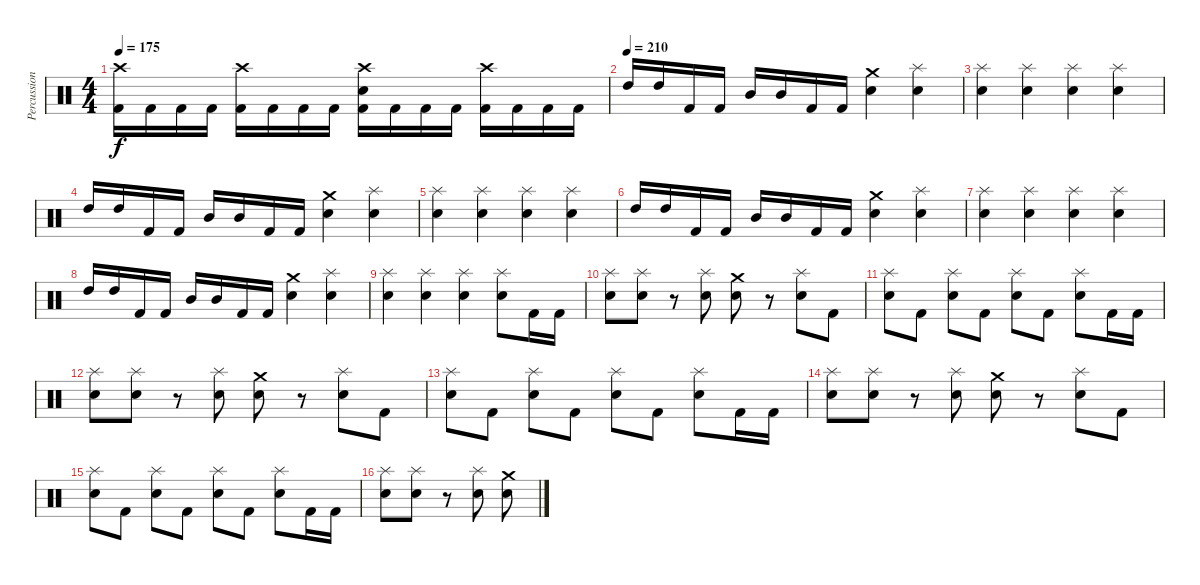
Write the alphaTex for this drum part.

\track ("Percussion" "Percussion") {instrument percussion}
\staff {score}
\articulation defaults
\ts (4 4)
\tempo 175
\clef neutral
\ks c
("Crash high (hit)" "Kick (hit) 2").16{dy f} "Kick (hit) 2".16 "Kick (hit) 2".16 "Kick (hit) 2".16 ("Crash high (hit)" "Kick (hit) 2").16 "Kick (hit) 2".16 "Kick (hit) 2".16 "Kick (hit) 2".16 ("Crash high (hit)" "Electric Snare (hit)" "Kick (hit) 2").16 "Kick (hit) 2".16 "Kick (hit) 2".16 "Kick (hit) 2".16 ("Crash high (hit)" "Kick (hit) 2").16 "Kick (hit) 2".16 "Kick (hit) 2".16 "Kick (hit) 2".16 |
\tempo (210)
"High Tom (hit)".16 "High Tom (hit)".16 "Kick (hit) 2".16 "Kick (hit) 2".16 "Mid Tom (hit)".16 "Mid Tom (hit)".16 "Kick (hit) 2".16 "Kick (hit) 2".16 ("Crash medium (hit)" "Electric Snare (hit)").4 ("Splash (hit)" "Electric Snare (hit)").4 |
("Splash (hit)" "Electric Snare (hit)").4 ("Splash (hit)" "Electric Snare (hit)").4 ("Splash (hit)" "Electric Snare (hit)").4 ("Splash (hit)" "Electric Snare (hit)").4 |
"High Tom (hit)".16 "High Tom (hit)".16 "Kick (hit) 2".16 "Kick (hit) 2".16 "Mid Tom (hit)".16 "Mid Tom (hit)".16 "Kick (hit) 2".16 "Kick (hit) 2".16 ("Crash medium (hit)" "Electric Snare (hit)").4 ("Splash (hit)" "Electric Snare (hit)").4 |
("Splash (hit)" "Electric Snare (hit)").4 ("Splash (hit)" "Electric Snare (hit)").4 ("Splash (hit)" "Electric Snare (hit)").4 ("Splash (hit)" "Electric Snare (hit)").4 |
"High Tom (hit)".16 "High Tom (hit)".16 "Kick (hit) 2".16 "Kick (hit) 2".16 "Mid Tom (hit)".16 "Mid Tom (hit)".16 "Kick (hit) 2".16 "Kick (hit) 2".16 ("Crash medium (hit)" "Electric Snare (hit)").4 ("Splash (hit)" "Electric Snare (hit)").4 |
("Splash (hit)" "Electric Snare (hit)").4 ("Splash (hit)" "Electric Snare (hit)").4 ("Splash (hit)" "Electric Snare (hit)").4 ("Splash (hit)" "Electric Snare (hit)").4 |
"High Tom (hit)".16 "High Tom (hit)".16 "Kick (hit) 2".16 "Kick (hit) 2".16 "Mid Tom (hit)".16 "Mid Tom (hit)".16 "Kick (hit) 2".16 "Kick (hit) 2".16 ("Crash medium (hit)" "Electric Snare (hit)").4 ("Splash (hit)" "Electric Snare (hit)").4 |
("Splash (hit)" "Electric Snare (hit)").4 ("Splash (hit)" "Electric Snare (hit)").4 ("Splash (hit)" "Electric Snare (hit)").4 ("Splash (hit)" "Electric Snare (hit)").8 "Kick (hit) 2".16 "Kick (hit) 2".16 |
("Splash (hit)" "Electric Snare (hit)").8 ("Splash (hit)" "Electric Snare (hit)").8 r.8 ("Splash (hit)" "Electric Snare (hit)").8 ("Crash medium (hit)" "Electric Snare (hit)").8 r.8 ("Splash (hit)" "Electric Snare (hit)").8 "Kick (hit) 2".8 |
("Splash (hit)" "Electric Snare (hit)").8 "Kick (hit) 2".8 ("Splash (hit)" "Electric Snare (hit)").8 "Kick (hit) 2".8 ("Splash (hit)" "Electric Snare (hit)").8 "Kick (hit) 2".8 ("Splash (hit)" "Electric Snare (hit)").8 "Kick (hit) 2".16 "Kick (hit) 2".16 |
("Splash (hit)" "Electric Snare (hit)").8 ("Splash (hit)" "Electric Snare (hit)").8 r.8 ("Splash (hit)" "Electric Snare (hit)").8 ("Crash medium (hit)" "Electric Snare (hit)").8 r.8 ("Splash (hit)" "Electric Snare (hit)").8 "Kick (hit) 2".8 |
("Splash (hit)" "Electric Snare (hit)").8 "Kick (hit) 2".8 ("Splash (hit)" "Electric Snare (hit)").8 "Kick (hit) 2".8 ("Splash (hit)" "Electric Snare (hit)").8 "Kick (hit) 2".8 ("Splash (hit)" "Electric Snare (hit)").8 "Kick (hit) 2".16 "Kick (hit) 2".16 |
("Splash (hit)" "Electric Snare (hit)").8 ("Splash (hit)" "Electric Snare (hit)").8 r.8 ("Splash (hit)" "Electric Snare (hit)").8 ("Crash medium (hit)" "Electric Snare (hit)").8 r.8 ("Splash (hit)" "Electric Snare (hit)").8 "Kick (hit) 2".8 |
("Splash (hit)" "Electric Snare (hit)").8 "Kick (hit) 2".8 ("Splash (hit)" "Electric Snare (hit)").8 "Kick (hit) 2".8 ("Splash (hit)" "Electric Snare (hit)").8 "Kick (hit) 2".8 ("Splash (hit)" "Electric Snare (hit)").8 "Kick (hit) 2".16 "Kick (hit) 2".16 |
("Splash (hit)" "Electric Snare (hit)").8 ("Splash (hit)" "Electric Snare (hit)").8 r.8 ("Splash (hit)" "Electric Snare (hit)").8 ("Crash medium (hit)" "Electric Snare (hit)").8
